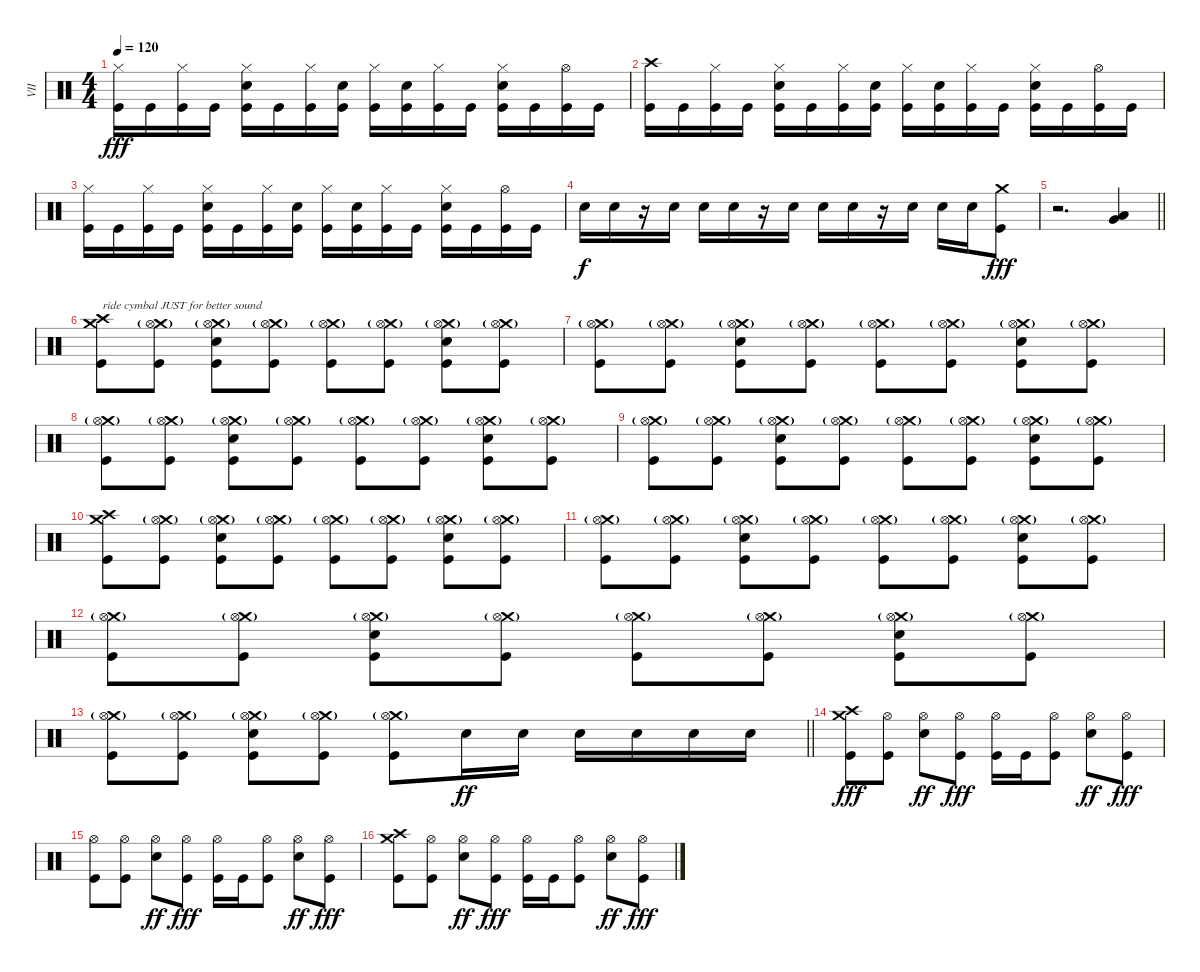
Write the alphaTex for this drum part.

\track ("VII" "VII") {instrument percussion}
\staff {score}
\articulation defaults
\ts (4 4)
\tempo 120
\clef neutral
\ks c
("Hi-Hat (closed)" "Kick (hit)").16{dy fff} "Kick (hit)".16 ("Hi-Hat (closed)" "Kick (hit)").16 "Kick (hit)".16 ("Hi-Hat (closed)" "Snare (hit) 2" "Kick (hit)").16 "Kick (hit)".16 ("Hi-Hat (closed)" "Kick (hit)").16 ("Snare (hit) 2" "Kick (hit)").16 ("Hi-Hat (closed)" "Kick (hit)").16 ("Snare (hit) 2" "Kick (hit)").16 ("Hi-Hat (closed)" "Kick (hit)").16 "Kick (hit)".16 ("Hi-Hat (closed)" "Snare (hit) 2" "Kick (hit)").16 "Kick (hit)".16 ("Hi-Hat (open)" "Kick (hit)").16 "Kick (hit)".16 |
("Crash high (hit)" "Kick (hit)").16 "Kick (hit)".16 ("Hi-Hat (closed)" "Kick (hit)").16 "Kick (hit)".16 ("Hi-Hat (closed)" "Snare (hit) 2" "Kick (hit)").16 "Kick (hit)".16 ("Hi-Hat (closed)" "Kick (hit)").16 ("Snare (hit) 2" "Kick (hit)").16 ("Hi-Hat (closed)" "Kick (hit)").16 ("Snare (hit) 2" "Kick (hit)").16 ("Hi-Hat (closed)" "Kick (hit)").16 "Kick (hit)".16 ("Hi-Hat (closed)" "Snare (hit) 2" "Kick (hit)").16 "Kick (hit)".16 ("Hi-Hat (open)" "Kick (hit)").16 "Kick (hit)".16 |
("Hi-Hat (closed)" "Kick (hit)").16 "Kick (hit)".16 ("Hi-Hat (closed)" "Kick (hit)").16 "Kick (hit)".16 ("Hi-Hat (closed)" "Snare (hit) 2" "Kick (hit)").16 "Kick (hit)".16 ("Hi-Hat (closed)" "Kick (hit)").16 ("Snare (hit) 2" "Kick (hit)").16 ("Hi-Hat (closed)" "Kick (hit)").16 ("Snare (hit) 2" "Kick (hit)").16 ("Hi-Hat (closed)" "Kick (hit)").16 "Kick (hit)".16 ("Hi-Hat (closed)" "Snare (hit) 2" "Kick (hit)").16 "Kick (hit)".16 ("Hi-Hat (open)" "Kick (hit)").16 "Kick (hit)".16 |
"Snare (hit) 2".16{dy f} "Snare (hit) 2".16 r.16 "Snare (hit) 2".16 "Snare (hit) 2".16 "Snare (hit) 2".16 r.16 "Snare (hit) 2".16 "Snare (hit) 2".16 "Snare (hit) 2".16 r.16 "Snare (hit) 2".16 "Snare (hit) 2".16 "Snare (hit) 2".16 ("Crash medium (hit)" "Kick (hit)").8{dy fff} |
\barLineRight lightlight
r.2{d} ("Very Low Tom (hit)" "Low Floor Tom (hit)").4 |
("Crash high (hit)" "Crash medium (hit)" "Kick (hit)").8{txt "ride cymbal JUST for better sound"} ("Crash medium (hit)"{g} "Hi-Hat (open)" "Kick (hit)").8 ("Crash medium (hit)"{g} "Hi-Hat (open)" "Snare (hit) 2" "Kick (hit)").8 ("Crash medium (hit)"{g} "Hi-Hat (open)" "Kick (hit)").8 ("Crash medium (hit)"{g} "Hi-Hat (open)" "Kick (hit)").8 ("Crash medium (hit)"{g} "Hi-Hat (open)" "Kick (hit)").8 ("Crash medium (hit)"{g} "Hi-Hat (open)" "Snare (hit) 2" "Kick (hit)").8 ("Crash medium (hit)"{g} "Hi-Hat (open)" "Kick (hit)").8 |
("Crash medium (hit)"{g} "Hi-Hat (open)" "Kick (hit)").8 ("Crash medium (hit)"{g} "Hi-Hat (open)" "Kick (hit)").8 ("Crash medium (hit)"{g} "Hi-Hat (open)" "Snare (hit) 2" "Kick (hit)").8 ("Crash medium (hit)"{g} "Hi-Hat (open)" "Kick (hit)").8 ("Crash medium (hit)"{g} "Hi-Hat (open)" "Kick (hit)").8 ("Crash medium (hit)"{g} "Hi-Hat (open)" "Kick (hit)").8 ("Crash medium (hit)"{g} "Hi-Hat (open)" "Snare (hit) 2" "Kick (hit)").8 ("Crash medium (hit)"{g} "Hi-Hat (open)" "Kick (hit)").8 |
("Crash medium (hit)"{g} "Hi-Hat (open)" "Kick (hit)").8 ("Crash medium (hit)"{g} "Hi-Hat (open)" "Kick (hit)").8 ("Crash medium (hit)"{g} "Hi-Hat (open)" "Snare (hit) 2" "Kick (hit)").8 ("Crash medium (hit)"{g} "Hi-Hat (open)" "Kick (hit)").8 ("Crash medium (hit)"{g} "Hi-Hat (open)" "Kick (hit)").8 ("Crash medium (hit)"{g} "Hi-Hat (open)" "Kick (hit)").8 ("Crash medium (hit)"{g} "Hi-Hat (open)" "Snare (hit) 2" "Kick (hit)").8 ("Crash medium (hit)"{g} "Hi-Hat (open)" "Kick (hit)").8 |
("Crash medium (hit)"{g} "Hi-Hat (open)" "Kick (hit)").8 ("Crash medium (hit)"{g} "Hi-Hat (open)" "Kick (hit)").8 ("Crash medium (hit)"{g} "Hi-Hat (open)" "Snare (hit) 2" "Kick (hit)").8 ("Crash medium (hit)"{g} "Hi-Hat (open)" "Kick (hit)").8 ("Crash medium (hit)"{g} "Hi-Hat (open)" "Kick (hit)").8 ("Crash medium (hit)"{g} "Hi-Hat (open)" "Kick (hit)").8 ("Crash medium (hit)"{g} "Hi-Hat (open)" "Snare (hit) 2" "Kick (hit)").8 ("Crash medium (hit)"{g} "Hi-Hat (open)" "Kick (hit)").8 |
("Crash high (hit)" "Crash medium (hit)" "Kick (hit)").8 ("Crash medium (hit)"{g} "Hi-Hat (open)" "Kick (hit)").8 ("Crash medium (hit)"{g} "Hi-Hat (open)" "Snare (hit) 2" "Kick (hit)").8 ("Crash medium (hit)"{g} "Hi-Hat (open)" "Kick (hit)").8 ("Crash medium (hit)"{g} "Hi-Hat (open)" "Kick (hit)").8 ("Crash medium (hit)"{g} "Hi-Hat (open)" "Kick (hit)").8 ("Crash medium (hit)"{g} "Hi-Hat (open)" "Snare (hit) 2" "Kick (hit)").8 ("Crash medium (hit)"{g} "Hi-Hat (open)" "Kick (hit)").8 |
("Crash medium (hit)"{g} "Hi-Hat (open)" "Kick (hit)").8 ("Crash medium (hit)"{g} "Hi-Hat (open)" "Kick (hit)").8 ("Crash medium (hit)"{g} "Hi-Hat (open)" "Snare (hit) 2" "Kick (hit)").8 ("Crash medium (hit)"{g} "Hi-Hat (open)" "Kick (hit)").8 ("Crash medium (hit)"{g} "Hi-Hat (open)" "Kick (hit)").8 ("Crash medium (hit)"{g} "Hi-Hat (open)" "Kick (hit)").8 ("Crash medium (hit)"{g} "Hi-Hat (open)" "Snare (hit) 2" "Kick (hit)").8 ("Crash medium (hit)"{g} "Hi-Hat (open)" "Kick (hit)").8 |
("Crash medium (hit)"{g} "Hi-Hat (open)" "Kick (hit)").8 ("Crash medium (hit)"{g} "Hi-Hat (open)" "Kick (hit)").8 ("Crash medium (hit)"{g} "Hi-Hat (open)" "Snare (hit) 2" "Kick (hit)").8 ("Crash medium (hit)"{g} "Hi-Hat (open)" "Kick (hit)").8 ("Crash medium (hit)"{g} "Hi-Hat (open)" "Kick (hit)").8 ("Crash medium (hit)"{g} "Hi-Hat (open)" "Kick (hit)").8 ("Crash medium (hit)"{g} "Hi-Hat (open)" "Snare (hit) 2" "Kick (hit)").8 ("Crash medium (hit)"{g} "Hi-Hat (open)" "Kick (hit)").8 |
\barLineRight lightlight
("Crash medium (hit)"{g} "Hi-Hat (open)" "Kick (hit)").8 ("Crash medium (hit)"{g} "Hi-Hat (open)" "Kick (hit)").8 ("Crash medium (hit)"{g} "Hi-Hat (open)" "Snare (hit) 2" "Kick (hit)").8 ("Crash medium (hit)"{g} "Hi-Hat (open)" "Kick (hit)").8 ("Crash medium (hit)"{g} "Hi-Hat (open)" "Kick (hit)").8 "Snare (hit) 2".16{dy ff} "Snare (hit) 2".16 "Snare (hit) 2".16 "Snare (hit) 2".16 "Snare (hit) 2".16 "Snare (hit) 2".16 |
("Crash high (hit)" "Crash medium (hit)" "Kick (hit)").8{dy fff} ("Hi-Hat (open)" "Kick (hit)").8 ("Hi-Hat (open)" "Snare (hit) 2").8{dy ff} ("Hi-Hat (open)" "Kick (hit)").8{dy fff} ("Hi-Hat (open)" "Kick (hit)").16 "Kick (hit)".16 ("Hi-Hat (open)" "Kick (hit)").8 ("Hi-Hat (open)" "Snare (hit) 2").8{dy ff} ("Hi-Hat (open)" "Kick (hit)").8{dy fff} |
("Hi-Hat (open)" "Kick (hit)").8 ("Hi-Hat (open)" "Kick (hit)").8 ("Hi-Hat (open)" "Snare (hit) 2").8{dy ff} ("Hi-Hat (open)" "Kick (hit)").8{dy fff} ("Hi-Hat (open)" "Kick (hit)").16 "Kick (hit)".16 ("Hi-Hat (open)" "Kick (hit)").8 ("Hi-Hat (open)" "Snare (hit) 2").8{dy ff} ("Hi-Hat (open)" "Kick (hit)").8{dy fff} |
("Crash high (hit)" "Crash medium (hit)" "Kick (hit)").8 ("Hi-Hat (open)" "Kick (hit)").8 ("Hi-Hat (open)" "Snare (hit) 2").8{dy ff} ("Hi-Hat (open)" "Kick (hit)").8{dy fff} ("Hi-Hat (open)" "Kick (hit)").16 "Kick (hit)".16 ("Hi-Hat (open)" "Kick (hit)").8 ("Hi-Hat (open)" "Snare (hit) 2").8{dy ff} ("Hi-Hat (open)" "Kick (hit)").8{dy fff}
